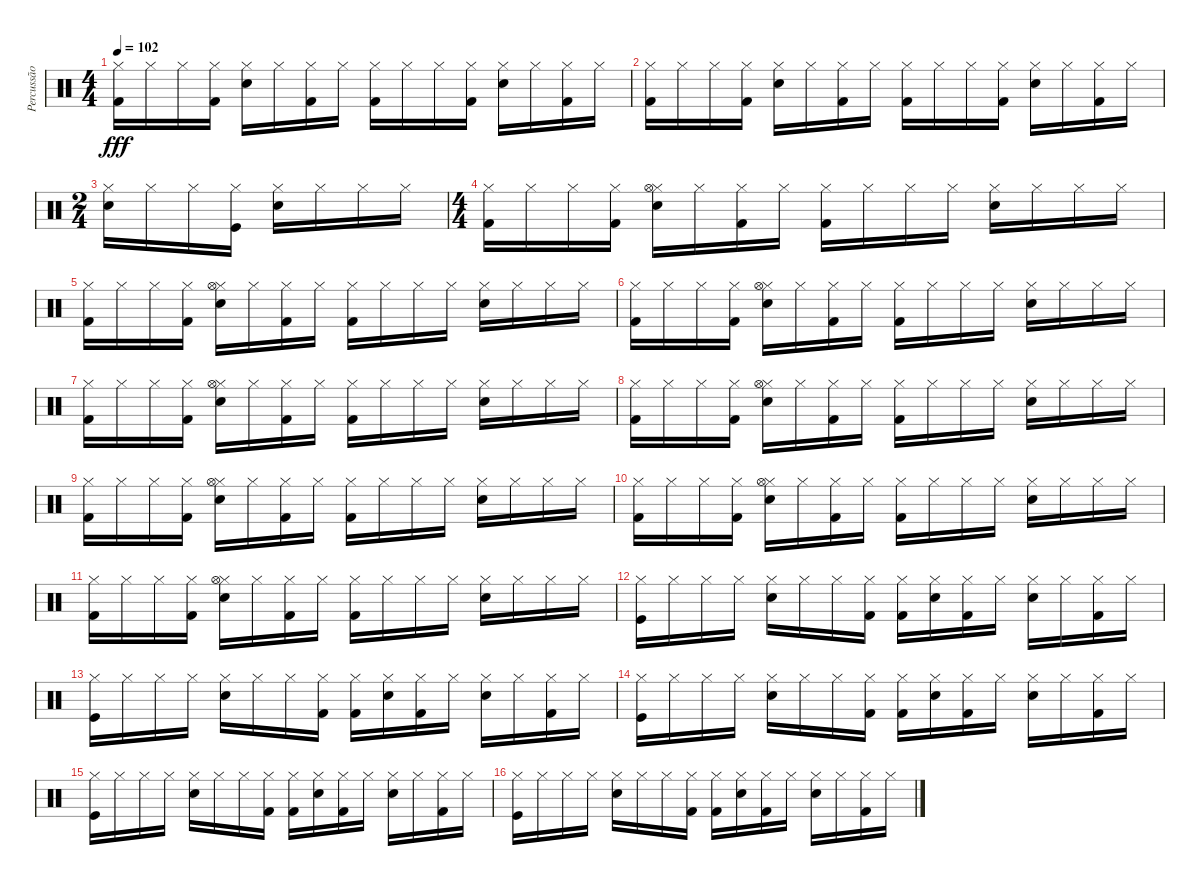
\track ("Percussão" "Percussão") {instrument percussion}
\staff {score}
\articulation defaults
\ts (4 4)
\tempo 102
\clef neutral
\ks c
("Hi-Hat (closed)" "Kick (hit) 2").16{dy fff} "Hi-Hat (closed)".16 "Hi-Hat (closed)".16 ("Hi-Hat (closed)" "Kick (hit) 2").16 ("Hi-Hat (closed)" "Snare (hit) 2").16 "Hi-Hat (closed)".16 ("Hi-Hat (closed)" "Kick (hit) 2").16 "Hi-Hat (closed)".16 ("Hi-Hat (closed)" "Kick (hit) 2").16 "Hi-Hat (closed)".16 "Hi-Hat (closed)".16 ("Hi-Hat (closed)" "Kick (hit) 2").16 ("Hi-Hat (closed)" "Snare (hit) 2").16 "Hi-Hat (closed)".16 ("Hi-Hat (closed)" "Kick (hit) 2").16 "Hi-Hat (closed)".16 |
("Hi-Hat (closed)" "Kick (hit) 2").16 "Hi-Hat (closed)".16 "Hi-Hat (closed)".16 ("Hi-Hat (closed)" "Kick (hit) 2").16 ("Hi-Hat (closed)" "Snare (hit) 2").16 "Hi-Hat (closed)".16 ("Hi-Hat (closed)" "Kick (hit) 2").16 "Hi-Hat (closed)".16 ("Hi-Hat (closed)" "Kick (hit) 2").16 "Hi-Hat (closed)".16 "Hi-Hat (closed)".16 ("Hi-Hat (closed)" "Kick (hit) 2").16 ("Hi-Hat (closed)" "Snare (hit) 2").16 "Hi-Hat (closed)".16 ("Hi-Hat (closed)" "Kick (hit) 2").16 "Hi-Hat (closed)".16 |
\ts (2 4)
("Hi-Hat (closed)" "Snare (hit) 2").16 "Hi-Hat (closed)".16 "Hi-Hat (closed)".16 ("Hi-Hat (closed)" "Kick (hit)").16 ("Hi-Hat (closed)" "Snare (hit) 2").16 "Hi-Hat (closed)".16 "Hi-Hat (closed)".16 "Hi-Hat (closed)".16 |
\ts (4 4)
("Hi-Hat (closed)" "Kick (hit) 2").16 "Hi-Hat (closed)".16 "Hi-Hat (closed)".16 ("Hi-Hat (closed)" "Kick (hit) 2").16 ("Hi-Hat (closed)" "Snare (hit) 2" "Hi-Hat (open)").16 "Hi-Hat (closed)".16 ("Hi-Hat (closed)" "Kick (hit) 2").16 "Hi-Hat (closed)".16 ("Hi-Hat (closed)" "Kick (hit) 2").16 "Hi-Hat (closed)".16 "Hi-Hat (closed)".16 "Hi-Hat (closed)".16 ("Hi-Hat (closed)" "Snare (hit) 2").16 "Hi-Hat (closed)".16 "Hi-Hat (closed)".16 "Hi-Hat (closed)".16 |
("Hi-Hat (closed)" "Kick (hit) 2").16 "Hi-Hat (closed)".16 "Hi-Hat (closed)".16 ("Hi-Hat (closed)" "Kick (hit) 2").16 ("Hi-Hat (closed)" "Snare (hit) 2" "Hi-Hat (open)").16 "Hi-Hat (closed)".16 ("Hi-Hat (closed)" "Kick (hit) 2").16 "Hi-Hat (closed)".16 ("Hi-Hat (closed)" "Kick (hit) 2").16 "Hi-Hat (closed)".16 "Hi-Hat (closed)".16 "Hi-Hat (closed)".16 ("Hi-Hat (closed)" "Snare (hit) 2").16 "Hi-Hat (closed)".16 "Hi-Hat (closed)".16 "Hi-Hat (closed)".16 |
("Hi-Hat (closed)" "Kick (hit) 2").16 "Hi-Hat (closed)".16 "Hi-Hat (closed)".16 ("Hi-Hat (closed)" "Kick (hit) 2").16 ("Hi-Hat (closed)" "Snare (hit) 2" "Hi-Hat (open)").16 "Hi-Hat (closed)".16 ("Hi-Hat (closed)" "Kick (hit) 2").16 "Hi-Hat (closed)".16 ("Hi-Hat (closed)" "Kick (hit) 2").16 "Hi-Hat (closed)".16 "Hi-Hat (closed)".16 "Hi-Hat (closed)".16 ("Hi-Hat (closed)" "Snare (hit) 2").16 "Hi-Hat (closed)".16 "Hi-Hat (closed)".16 "Hi-Hat (closed)".16 |
("Hi-Hat (closed)" "Kick (hit) 2").16 "Hi-Hat (closed)".16 "Hi-Hat (closed)".16 ("Hi-Hat (closed)" "Kick (hit) 2").16 ("Hi-Hat (closed)" "Snare (hit) 2" "Hi-Hat (open)").16 "Hi-Hat (closed)".16 ("Hi-Hat (closed)" "Kick (hit) 2").16 "Hi-Hat (closed)".16 ("Hi-Hat (closed)" "Kick (hit) 2").16 "Hi-Hat (closed)".16 "Hi-Hat (closed)".16 "Hi-Hat (closed)".16 ("Hi-Hat (closed)" "Snare (hit) 2").16 "Hi-Hat (closed)".16 "Hi-Hat (closed)".16 "Hi-Hat (closed)".16 |
("Hi-Hat (closed)" "Kick (hit) 2").16 "Hi-Hat (closed)".16 "Hi-Hat (closed)".16 ("Hi-Hat (closed)" "Kick (hit) 2").16 ("Hi-Hat (closed)" "Snare (hit) 2" "Hi-Hat (open)").16 "Hi-Hat (closed)".16 ("Hi-Hat (closed)" "Kick (hit) 2").16 "Hi-Hat (closed)".16 ("Hi-Hat (closed)" "Kick (hit) 2").16 "Hi-Hat (closed)".16 "Hi-Hat (closed)".16 "Hi-Hat (closed)".16 ("Hi-Hat (closed)" "Snare (hit) 2").16 "Hi-Hat (closed)".16 "Hi-Hat (closed)".16 "Hi-Hat (closed)".16 |
("Hi-Hat (closed)" "Kick (hit) 2").16 "Hi-Hat (closed)".16 "Hi-Hat (closed)".16 ("Hi-Hat (closed)" "Kick (hit) 2").16 ("Hi-Hat (closed)" "Snare (hit) 2" "Hi-Hat (open)").16 "Hi-Hat (closed)".16 ("Hi-Hat (closed)" "Kick (hit) 2").16 "Hi-Hat (closed)".16 ("Hi-Hat (closed)" "Kick (hit) 2").16 "Hi-Hat (closed)".16 "Hi-Hat (closed)".16 "Hi-Hat (closed)".16 ("Hi-Hat (closed)" "Snare (hit) 2").16 "Hi-Hat (closed)".16 "Hi-Hat (closed)".16 "Hi-Hat (closed)".16 |
("Hi-Hat (closed)" "Kick (hit) 2").16 "Hi-Hat (closed)".16 "Hi-Hat (closed)".16 ("Hi-Hat (closed)" "Kick (hit) 2").16 ("Hi-Hat (closed)" "Snare (hit) 2" "Hi-Hat (open)").16 "Hi-Hat (closed)".16 ("Hi-Hat (closed)" "Kick (hit) 2").16 "Hi-Hat (closed)".16 ("Hi-Hat (closed)" "Kick (hit) 2").16 "Hi-Hat (closed)".16 "Hi-Hat (closed)".16 "Hi-Hat (closed)".16 ("Hi-Hat (closed)" "Snare (hit) 2").16 "Hi-Hat (closed)".16 "Hi-Hat (closed)".16 "Hi-Hat (closed)".16 |
("Hi-Hat (closed)" "Kick (hit) 2").16 "Hi-Hat (closed)".16 "Hi-Hat (closed)".16 ("Hi-Hat (closed)" "Kick (hit) 2").16 ("Hi-Hat (closed)" "Snare (hit) 2" "Hi-Hat (open)").16 "Hi-Hat (closed)".16 ("Hi-Hat (closed)" "Kick (hit) 2").16 "Hi-Hat (closed)".16 ("Hi-Hat (closed)" "Kick (hit) 2").16 "Hi-Hat (closed)".16 "Hi-Hat (closed)".16 "Hi-Hat (closed)".16 ("Hi-Hat (closed)" "Snare (hit) 2").16 "Hi-Hat (closed)".16 "Hi-Hat (closed)".16 "Hi-Hat (closed)".16 |
("Hi-Hat (closed)" "Kick (hit)").16 "Hi-Hat (closed)".16 "Hi-Hat (closed)".16 "Hi-Hat (closed)".16 ("Hi-Hat (closed)" "Snare (hit) 2").16 "Hi-Hat (closed)".16 "Hi-Hat (closed)".16 ("Hi-Hat (closed)" "Kick (hit) 2").16 ("Hi-Hat (closed)" "Kick (hit) 2").16 ("Hi-Hat (closed)" "Snare (hit) 2").16 ("Hi-Hat (closed)" "Kick (hit) 2").16 "Hi-Hat (closed)".16 ("Hi-Hat (closed)" "Snare (hit) 2").16 "Hi-Hat (closed)".16 ("Hi-Hat (closed)" "Kick (hit) 2").16 "Hi-Hat (closed)".16 |
("Hi-Hat (closed)" "Kick (hit)").16 "Hi-Hat (closed)".16 "Hi-Hat (closed)".16 "Hi-Hat (closed)".16 ("Hi-Hat (closed)" "Snare (hit) 2").16 "Hi-Hat (closed)".16 "Hi-Hat (closed)".16 ("Hi-Hat (closed)" "Kick (hit) 2").16 ("Hi-Hat (closed)" "Kick (hit) 2").16 ("Hi-Hat (closed)" "Snare (hit) 2").16 ("Hi-Hat (closed)" "Kick (hit) 2").16 "Hi-Hat (closed)".16 ("Hi-Hat (closed)" "Snare (hit) 2").16 "Hi-Hat (closed)".16 ("Hi-Hat (closed)" "Kick (hit) 2").16 "Hi-Hat (closed)".16 |
("Hi-Hat (closed)" "Kick (hit)").16 "Hi-Hat (closed)".16 "Hi-Hat (closed)".16 "Hi-Hat (closed)".16 ("Hi-Hat (closed)" "Snare (hit) 2").16 "Hi-Hat (closed)".16 "Hi-Hat (closed)".16 ("Hi-Hat (closed)" "Kick (hit) 2").16 ("Hi-Hat (closed)" "Kick (hit) 2").16 ("Hi-Hat (closed)" "Snare (hit) 2").16 ("Hi-Hat (closed)" "Kick (hit) 2").16 "Hi-Hat (closed)".16 ("Hi-Hat (closed)" "Snare (hit) 2").16 "Hi-Hat (closed)".16 ("Hi-Hat (closed)" "Kick (hit) 2").16 "Hi-Hat (closed)".16 |
("Hi-Hat (closed)" "Kick (hit)").16 "Hi-Hat (closed)".16 "Hi-Hat (closed)".16 "Hi-Hat (closed)".16 ("Hi-Hat (closed)" "Snare (hit) 2").16 "Hi-Hat (closed)".16 "Hi-Hat (closed)".16 ("Hi-Hat (closed)" "Kick (hit) 2").16 ("Hi-Hat (closed)" "Kick (hit) 2").16 ("Hi-Hat (closed)" "Snare (hit) 2").16 ("Hi-Hat (closed)" "Kick (hit) 2").16 "Hi-Hat (closed)".16 ("Hi-Hat (closed)" "Snare (hit) 2").16 "Hi-Hat (closed)".16 ("Hi-Hat (closed)" "Kick (hit) 2").16 "Hi-Hat (closed)".16 |
("Hi-Hat (closed)" "Kick (hit)").16 "Hi-Hat (closed)".16 "Hi-Hat (closed)".16 "Hi-Hat (closed)".16 ("Hi-Hat (closed)" "Snare (hit) 2").16 "Hi-Hat (closed)".16 "Hi-Hat (closed)".16 ("Hi-Hat (closed)" "Kick (hit) 2").16 ("Hi-Hat (closed)" "Kick (hit) 2").16 ("Hi-Hat (closed)" "Snare (hit) 2").16 ("Hi-Hat (closed)" "Kick (hit) 2").16 "Hi-Hat (closed)".16 ("Hi-Hat (closed)" "Snare (hit) 2").16 "Hi-Hat (closed)".16 ("Hi-Hat (closed)" "Kick (hit) 2").16 "Hi-Hat (closed)".16
